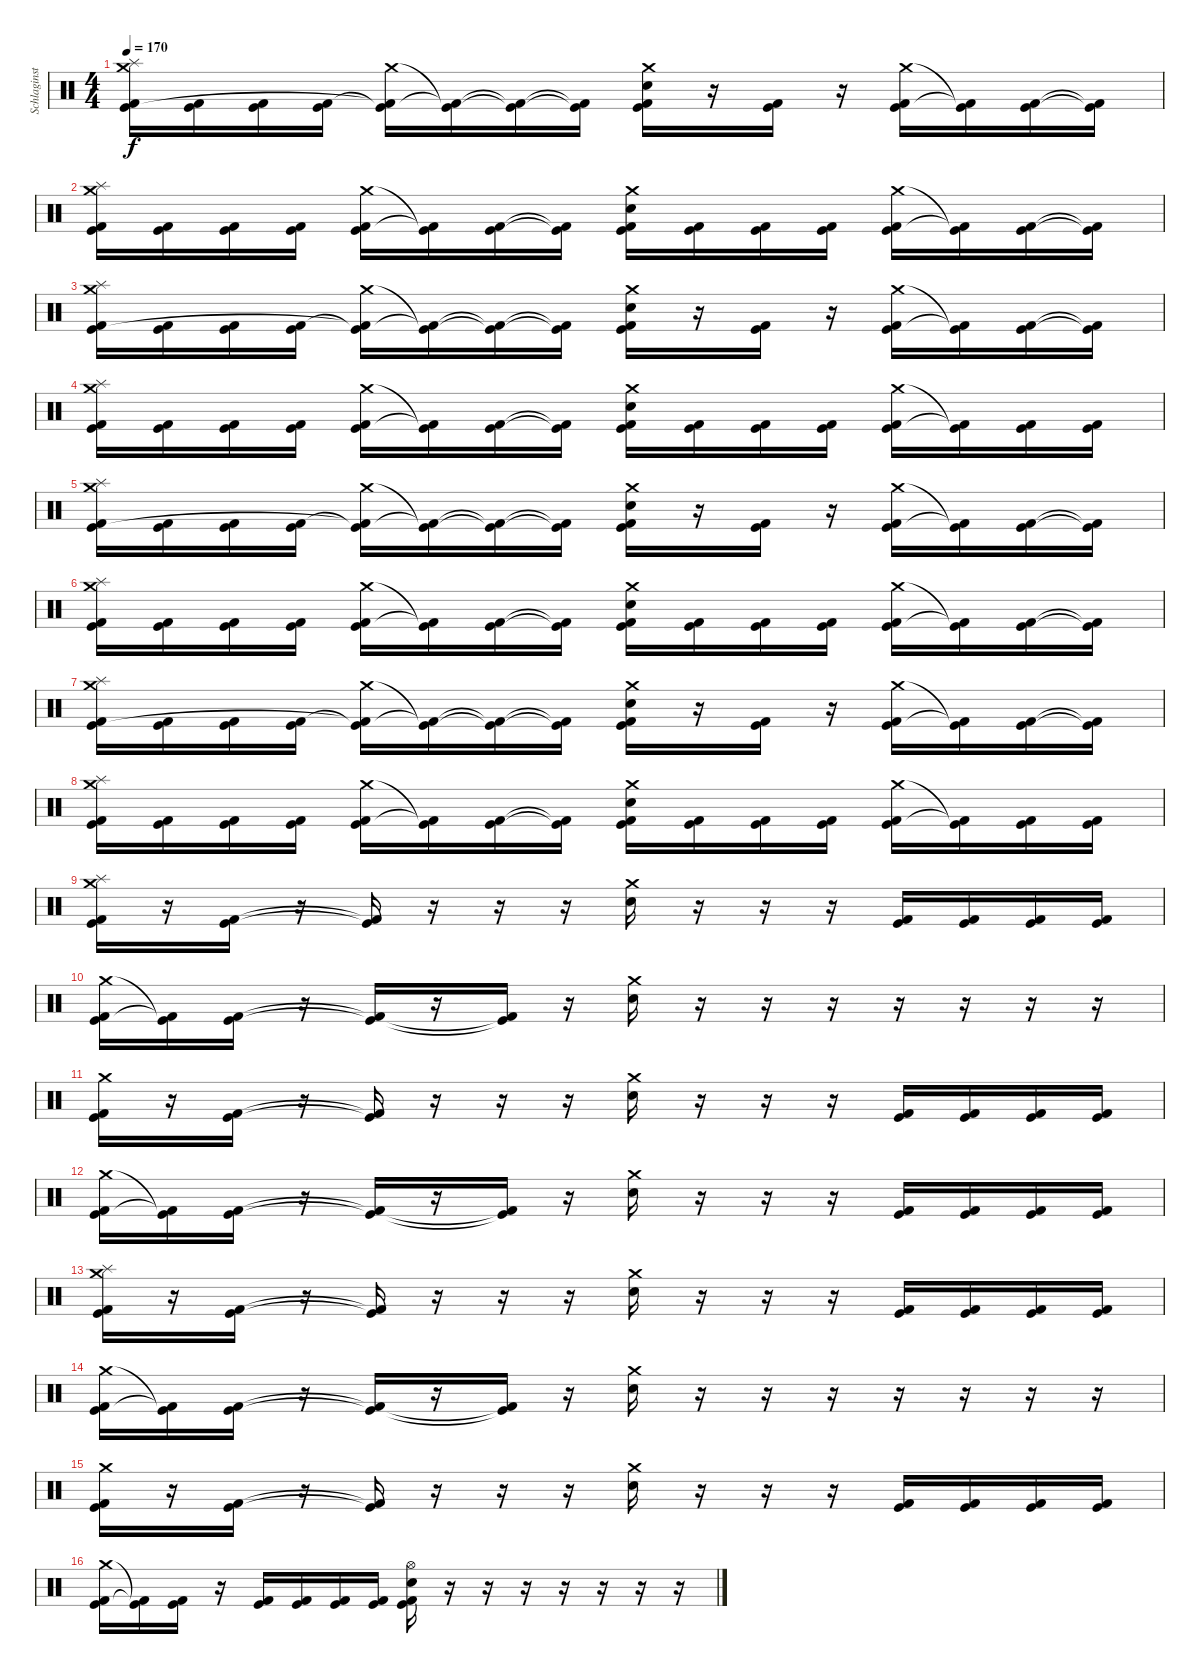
\track ("Schlaginstrumente - Auswahl" "Schlaginst") {instrument percussion}
\staff {score}
\articulation defaults
\ts (4 4)
\tempo 170
\clef neutral
\ks c
("Crash medium (hit)" "Splash (hit)" "Kick (hit)" "Kick (hit) 2").16{dy f} ("Kick (hit)" "Kick (hit) 2").16 ("Kick (hit)" "Kick (hit) 2").16 ("Kick (hit)" "Kick (hit) 2").16 ("Crash medium (hit)" "Kick (hit)"{t} "Kick (hit) 2"{t}).16 ("Kick (hit)"{t} "Kick (hit) 2"{t}).16 ("Kick (hit)"{t} "Kick (hit) 2"{t}).16 ("Kick (hit)"{t} "Kick (hit) 2"{t}).16 ("Crash medium (hit)" "Electric Snare (hit)" "Kick (hit)" "Kick (hit) 2").16 r.16 ("Kick (hit)" "Kick (hit) 2").16 r.16 ("Crash medium (hit)" "Kick (hit)" "Kick (hit) 2").16 ("Kick (hit)"{t} "Kick (hit) 2"{t}).16 ("Kick (hit)" "Kick (hit) 2").16 ("Kick (hit)"{t} "Kick (hit) 2"{t}).16 |
("Crash medium (hit)" "Splash (hit)" "Kick (hit)" "Kick (hit) 2").16 ("Kick (hit)" "Kick (hit) 2").16 ("Kick (hit)" "Kick (hit) 2").16 ("Kick (hit)" "Kick (hit) 2").16 ("Crash medium (hit)" "Kick (hit)" "Kick (hit) 2").16 ("Kick (hit)"{t} "Kick (hit) 2"{t}).16 ("Kick (hit)" "Kick (hit) 2").16 ("Kick (hit)"{t} "Kick (hit) 2"{t}).16 ("Crash medium (hit)" "Electric Snare (hit)" "Kick (hit)" "Kick (hit) 2").16 ("Kick (hit)" "Kick (hit) 2").16 ("Kick (hit)" "Kick (hit) 2").16 ("Kick (hit)" "Kick (hit) 2").16 ("Crash medium (hit)" "Kick (hit)" "Kick (hit) 2").16 ("Kick (hit)"{t} "Kick (hit) 2"{t}).16 ("Kick (hit)" "Kick (hit) 2").16 ("Kick (hit)"{t} "Kick (hit) 2"{t}).16 |
("Crash medium (hit)" "Splash (hit)" "Kick (hit)" "Kick (hit) 2").16 ("Kick (hit)" "Kick (hit) 2").16 ("Kick (hit)" "Kick (hit) 2").16 ("Kick (hit)" "Kick (hit) 2").16 ("Crash medium (hit)" "Kick (hit)"{t} "Kick (hit) 2"{t}).16 ("Kick (hit)"{t} "Kick (hit) 2"{t}).16 ("Kick (hit)"{t} "Kick (hit) 2"{t}).16 ("Kick (hit)"{t} "Kick (hit) 2"{t}).16 ("Crash medium (hit)" "Electric Snare (hit)" "Kick (hit)" "Kick (hit) 2").16 r.16 ("Kick (hit)" "Kick (hit) 2").16 r.16 ("Crash medium (hit)" "Kick (hit)" "Kick (hit) 2").16 ("Kick (hit)"{t} "Kick (hit) 2"{t}).16 ("Kick (hit)" "Kick (hit) 2").16 ("Kick (hit)"{t} "Kick (hit) 2"{t}).16 |
("Crash medium (hit)" "Splash (hit)" "Kick (hit)" "Kick (hit) 2").16 ("Kick (hit)" "Kick (hit) 2").16 ("Kick (hit)" "Kick (hit) 2").16 ("Kick (hit)" "Kick (hit) 2").16 ("Crash medium (hit)" "Kick (hit)" "Kick (hit) 2").16 ("Kick (hit)"{t} "Kick (hit) 2"{t}).16 ("Kick (hit)" "Kick (hit) 2").16 ("Kick (hit)"{t} "Kick (hit) 2"{t}).16 ("Crash medium (hit)" "Electric Snare (hit)" "Kick (hit)" "Kick (hit) 2").16 ("Kick (hit)" "Kick (hit) 2").16 ("Kick (hit)" "Kick (hit) 2").16 ("Kick (hit)" "Kick (hit) 2").16 ("Crash medium (hit)" "Kick (hit)" "Kick (hit) 2").16 ("Kick (hit)"{t} "Kick (hit) 2"{t}).16 ("Kick (hit)" "Kick (hit) 2").16 ("Kick (hit)" "Kick (hit) 2").16 |
("Crash medium (hit)" "Splash (hit)" "Kick (hit)" "Kick (hit) 2").16 ("Kick (hit)" "Kick (hit) 2").16 ("Kick (hit)" "Kick (hit) 2").16 ("Kick (hit)" "Kick (hit) 2").16 ("Crash medium (hit)" "Kick (hit)"{t} "Kick (hit) 2"{t}).16 ("Kick (hit)"{t} "Kick (hit) 2"{t}).16 ("Kick (hit)"{t} "Kick (hit) 2"{t}).16 ("Kick (hit)"{t} "Kick (hit) 2"{t}).16 ("Crash medium (hit)" "Electric Snare (hit)" "Kick (hit)" "Kick (hit) 2").16 r.16 ("Kick (hit)" "Kick (hit) 2").16 r.16 ("Crash medium (hit)" "Kick (hit)" "Kick (hit) 2").16 ("Kick (hit)"{t} "Kick (hit) 2"{t}).16 ("Kick (hit)" "Kick (hit) 2").16 ("Kick (hit)"{t} "Kick (hit) 2"{t}).16 |
("Crash medium (hit)" "Splash (hit)" "Kick (hit)" "Kick (hit) 2").16 ("Kick (hit)" "Kick (hit) 2").16 ("Kick (hit)" "Kick (hit) 2").16 ("Kick (hit)" "Kick (hit) 2").16 ("Crash medium (hit)" "Kick (hit)" "Kick (hit) 2").16 ("Kick (hit)"{t} "Kick (hit) 2"{t}).16 ("Kick (hit)" "Kick (hit) 2").16 ("Kick (hit)"{t} "Kick (hit) 2"{t}).16 ("Crash medium (hit)" "Electric Snare (hit)" "Kick (hit)" "Kick (hit) 2").16 ("Kick (hit)" "Kick (hit) 2").16 ("Kick (hit)" "Kick (hit) 2").16 ("Kick (hit)" "Kick (hit) 2").16 ("Crash medium (hit)" "Kick (hit)" "Kick (hit) 2").16 ("Kick (hit)"{t} "Kick (hit) 2"{t}).16 ("Kick (hit)" "Kick (hit) 2").16 ("Kick (hit)"{t} "Kick (hit) 2"{t}).16 |
("Crash medium (hit)" "Splash (hit)" "Kick (hit)" "Kick (hit) 2").16 ("Kick (hit)" "Kick (hit) 2").16 ("Kick (hit)" "Kick (hit) 2").16 ("Kick (hit)" "Kick (hit) 2").16 ("Crash medium (hit)" "Kick (hit)"{t} "Kick (hit) 2"{t}).16 ("Kick (hit)"{t} "Kick (hit) 2"{t}).16 ("Kick (hit)"{t} "Kick (hit) 2"{t}).16 ("Kick (hit)"{t} "Kick (hit) 2"{t}).16 ("Crash medium (hit)" "Electric Snare (hit)" "Kick (hit)" "Kick (hit) 2").16 r.16 ("Kick (hit)" "Kick (hit) 2").16 r.16 ("Crash medium (hit)" "Kick (hit)" "Kick (hit) 2").16 ("Kick (hit)"{t} "Kick (hit) 2"{t}).16 ("Kick (hit)" "Kick (hit) 2").16 ("Kick (hit)"{t} "Kick (hit) 2"{t}).16 |
("Crash medium (hit)" "Splash (hit)" "Kick (hit)" "Kick (hit) 2").16 ("Kick (hit)" "Kick (hit) 2").16 ("Kick (hit)" "Kick (hit) 2").16 ("Kick (hit)" "Kick (hit) 2").16 ("Crash medium (hit)" "Kick (hit)" "Kick (hit) 2").16 ("Kick (hit)"{t} "Kick (hit) 2"{t}).16 ("Kick (hit)" "Kick (hit) 2").16 ("Kick (hit)"{t} "Kick (hit) 2"{t}).16 ("Crash medium (hit)" "Electric Snare (hit)" "Kick (hit)" "Kick (hit) 2").16 ("Kick (hit)" "Kick (hit) 2").16 ("Kick (hit)" "Kick (hit) 2").16 ("Kick (hit)" "Kick (hit) 2").16 ("Crash medium (hit)" "Kick (hit)" "Kick (hit) 2").16 ("Kick (hit)"{t} "Kick (hit) 2"{t}).16 ("Kick (hit)" "Kick (hit) 2").16 ("Kick (hit)" "Kick (hit) 2").16 |
("Crash medium (hit)" "Splash (hit)" "Kick (hit)" "Kick (hit) 2").16 r.16 ("Kick (hit)" "Kick (hit) 2").16 r.16 ("Kick (hit)"{t} "Kick (hit) 2"{t}).16 r.16 r.16 r.16 ("Crash medium (hit)" "Electric Snare (hit)").16 r.16 r.16 r.16 ("Kick (hit)" "Kick (hit) 2").16 ("Kick (hit)" "Kick (hit) 2").16 ("Kick (hit)" "Kick (hit) 2").16 ("Kick (hit)" "Kick (hit) 2").16 |
("Crash medium (hit)" "Kick (hit)" "Kick (hit) 2").16 ("Kick (hit)"{t} "Kick (hit) 2"{t}).16 ("Kick (hit)" "Kick (hit) 2").16 r.16 ("Kick (hit)"{t} "Kick (hit) 2"{t}).16 r.16 ("Kick (hit)"{t} "Kick (hit) 2"{t}).16 r.16 ("Crash medium (hit)" "Electric Snare (hit)").16 r.16 r.16 r.16 r.16 r.16 r.16 r.16 |
("Crash medium (hit)" "Kick (hit)" "Kick (hit) 2").16 r.16 ("Kick (hit)" "Kick (hit) 2").16 r.16 ("Kick (hit)"{t} "Kick (hit) 2"{t}).16 r.16 r.16 r.16 ("Crash medium (hit)" "Electric Snare (hit)").16 r.16 r.16 r.16 ("Kick (hit)" "Kick (hit) 2").16 ("Kick (hit)" "Kick (hit) 2").16 ("Kick (hit)" "Kick (hit) 2").16 ("Kick (hit)" "Kick (hit) 2").16 |
("Crash medium (hit)" "Kick (hit)" "Kick (hit) 2").16 ("Kick (hit)"{t} "Kick (hit) 2"{t}).16 ("Kick (hit)" "Kick (hit) 2").16 r.16 ("Kick (hit)"{t} "Kick (hit) 2"{t}).16 r.16 ("Kick (hit)"{t} "Kick (hit) 2"{t}).16 r.16 ("Crash medium (hit)" "Electric Snare (hit)").16 r.16 r.16 r.16 ("Kick (hit)" "Kick (hit) 2").16 ("Kick (hit)" "Kick (hit) 2").16 ("Kick (hit)" "Kick (hit) 2").16 ("Kick (hit)" "Kick (hit) 2").16 |
("Crash medium (hit)" "Splash (hit)" "Kick (hit)" "Kick (hit) 2").16 r.16 ("Kick (hit)" "Kick (hit) 2").16 r.16 ("Kick (hit)"{t} "Kick (hit) 2"{t}).16 r.16 r.16 r.16 ("Crash medium (hit)" "Electric Snare (hit)").16 r.16 r.16 r.16 ("Kick (hit)" "Kick (hit) 2").16 ("Kick (hit)" "Kick (hit) 2").16 ("Kick (hit)" "Kick (hit) 2").16 ("Kick (hit)" "Kick (hit) 2").16 |
("Crash medium (hit)" "Kick (hit)" "Kick (hit) 2").16 ("Kick (hit)"{t} "Kick (hit) 2"{t}).16 ("Kick (hit)" "Kick (hit) 2").16 r.16 ("Kick (hit)"{t} "Kick (hit) 2"{t}).16 r.16 ("Kick (hit)"{t} "Kick (hit) 2"{t}).16 r.16 ("Crash medium (hit)" "Electric Snare (hit)").16 r.16 r.16 r.16 r.16 r.16 r.16 r.16 |
("Crash medium (hit)" "Kick (hit)" "Kick (hit) 2").16 r.16 ("Kick (hit)" "Kick (hit) 2").16 r.16 ("Kick (hit)"{t} "Kick (hit) 2"{t}).16 r.16 r.16 r.16 ("Crash medium (hit)" "Electric Snare (hit)").16 r.16 r.16 r.16 ("Kick (hit)" "Kick (hit) 2").16 ("Kick (hit)" "Kick (hit) 2").16 ("Kick (hit)" "Kick (hit) 2").16 ("Kick (hit)" "Kick (hit) 2").16 |
("Crash medium (hit)" "Kick (hit)" "Kick (hit) 2").16 ("Kick (hit)"{t} "Kick (hit) 2"{t}).16 ("Kick (hit)" "Kick (hit) 2").16 r.16 ("Kick (hit)" "Kick (hit) 2").16 ("Kick (hit)" "Kick (hit) 2").16 ("Kick (hit)" "Kick (hit) 2").16 ("Kick (hit)" "Kick (hit) 2").16 ("Hi-Hat (open)" "Electric Snare (hit)" "Kick (hit)" "Kick (hit) 2").16 r.16 r.16 r.16 r.16 r.16 r.16 r.16
